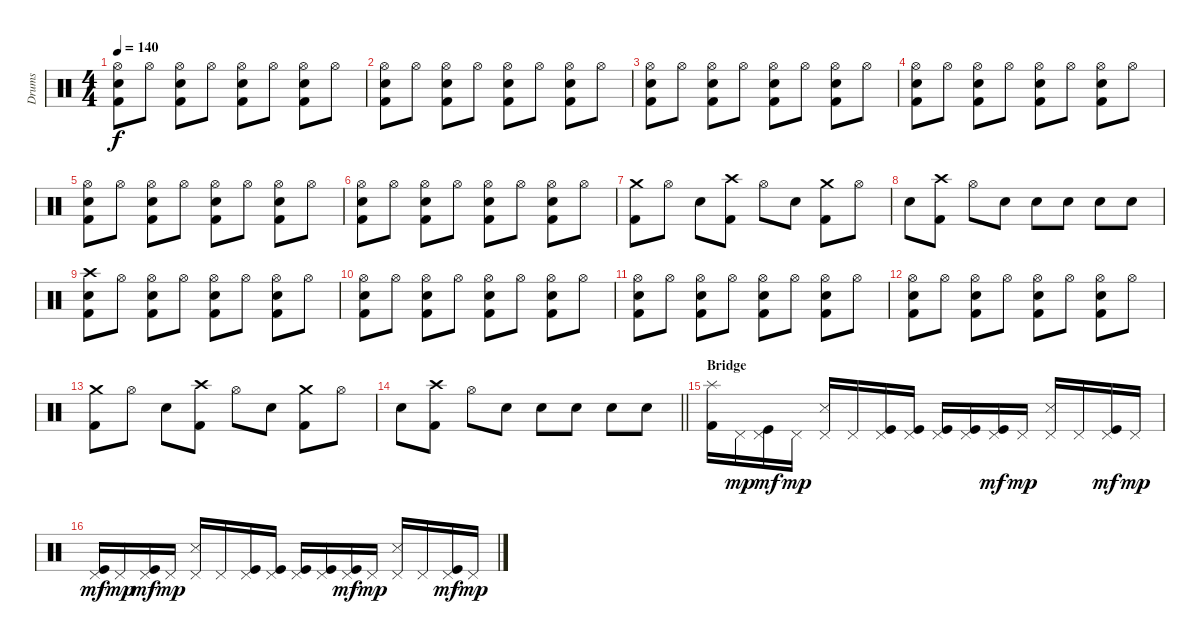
\track ("Drums" "Drums") {instrument percussion}
\staff {score}
\articulation defaults
\ts (4 4)
\tempo 140
\clef neutral
\ks c
("Hi-Hat (open)" "Snare (hit) 2" "Kick (hit) 2").8{dy f} "Hi-Hat (open)".8 ("Hi-Hat (open)" "Snare (hit) 2" "Kick (hit) 2").8 "Hi-Hat (open)".8 ("Hi-Hat (open)" "Snare (hit) 2" "Kick (hit) 2").8 "Hi-Hat (open)".8 ("Hi-Hat (open)" "Snare (hit) 2" "Kick (hit) 2").8 "Hi-Hat (open)".8 |
("Hi-Hat (open)" "Snare (hit) 2" "Kick (hit) 2").8 "Hi-Hat (open)".8 ("Hi-Hat (open)" "Snare (hit) 2" "Kick (hit) 2").8 "Hi-Hat (open)".8 ("Hi-Hat (open)" "Snare (hit) 2" "Kick (hit) 2").8 "Hi-Hat (open)".8 ("Hi-Hat (open)" "Snare (hit) 2" "Kick (hit) 2").8 "Hi-Hat (open)".8 |
("Hi-Hat (open)" "Snare (hit) 2" "Kick (hit) 2").8 "Hi-Hat (open)".8 ("Hi-Hat (open)" "Snare (hit) 2" "Kick (hit) 2").8 "Hi-Hat (open)".8 ("Hi-Hat (open)" "Snare (hit) 2" "Kick (hit) 2").8 "Hi-Hat (open)".8 ("Hi-Hat (open)" "Snare (hit) 2" "Kick (hit) 2").8 "Hi-Hat (open)".8 |
("Hi-Hat (open)" "Snare (hit) 2" "Kick (hit) 2").8 "Hi-Hat (open)".8 ("Hi-Hat (open)" "Snare (hit) 2" "Kick (hit) 2").8 "Hi-Hat (open)".8 ("Hi-Hat (open)" "Snare (hit) 2" "Kick (hit) 2").8 "Hi-Hat (open)".8 ("Hi-Hat (open)" "Snare (hit) 2" "Kick (hit) 2").8 "Hi-Hat (open)".8 |
("Hi-Hat (open)" "Snare (hit) 2" "Kick (hit) 2").8 "Hi-Hat (open)".8 ("Hi-Hat (open)" "Snare (hit) 2" "Kick (hit) 2").8 "Hi-Hat (open)".8 ("Hi-Hat (open)" "Snare (hit) 2" "Kick (hit) 2").8 "Hi-Hat (open)".8 ("Hi-Hat (open)" "Snare (hit) 2" "Kick (hit) 2").8 "Hi-Hat (open)".8 |
("Hi-Hat (open)" "Snare (hit) 2" "Kick (hit) 2").8 "Hi-Hat (open)".8 ("Hi-Hat (open)" "Snare (hit) 2" "Kick (hit) 2").8 "Hi-Hat (open)".8 ("Hi-Hat (open)" "Snare (hit) 2" "Kick (hit) 2").8 "Hi-Hat (open)".8 ("Hi-Hat (open)" "Snare (hit) 2" "Kick (hit) 2").8 "Hi-Hat (open)".8 |
("Crash medium (hit)" "Kick (hit) 2").8 "Hi-Hat (open)".8 "Snare (hit) 2".8 ("Crash high (hit)" "Kick (hit) 2").8 "Hi-Hat (open)".8 "Snare (hit) 2".8 ("Crash medium (hit)" "Kick (hit) 2").8 "Hi-Hat (open)".8 |
"Snare (hit) 2".8 ("Crash high (hit)" "Kick (hit) 2").8 "Hi-Hat (open)".8 "Snare (hit) 2".8 "Snare (hit) 2".8 "Snare (hit) 2".8 "Snare (hit) 2".8 "Snare (hit) 2".8 |
("Crash high (hit)" "Snare (hit) 2" "Kick (hit) 2").8 "Hi-Hat (open)".8 ("Hi-Hat (open)" "Snare (hit) 2" "Kick (hit) 2").8 "Hi-Hat (open)".8 ("Hi-Hat (open)" "Snare (hit) 2" "Kick (hit) 2").8 "Hi-Hat (open)".8 ("Hi-Hat (open)" "Snare (hit) 2" "Kick (hit) 2").8 "Hi-Hat (open)".8 |
("Hi-Hat (open)" "Snare (hit) 2" "Kick (hit) 2").8 "Hi-Hat (open)".8 ("Hi-Hat (open)" "Snare (hit) 2" "Kick (hit) 2").8 "Hi-Hat (open)".8 ("Hi-Hat (open)" "Snare (hit) 2" "Kick (hit) 2").8 "Hi-Hat (open)".8 ("Hi-Hat (open)" "Snare (hit) 2" "Kick (hit) 2").8 "Hi-Hat (open)".8 |
("Hi-Hat (open)" "Snare (hit) 2" "Kick (hit) 2").8 "Hi-Hat (open)".8 ("Hi-Hat (open)" "Snare (hit) 2" "Kick (hit) 2").8 "Hi-Hat (open)".8 ("Hi-Hat (open)" "Snare (hit) 2" "Kick (hit) 2").8 "Hi-Hat (open)".8 ("Hi-Hat (open)" "Snare (hit) 2" "Kick (hit) 2").8 "Hi-Hat (open)".8 |
("Hi-Hat (open)" "Snare (hit) 2" "Kick (hit) 2").8 "Hi-Hat (open)".8 ("Hi-Hat (open)" "Snare (hit) 2" "Kick (hit) 2").8 "Hi-Hat (open)".8 ("Hi-Hat (open)" "Snare (hit) 2" "Kick (hit) 2").8 "Hi-Hat (open)".8 ("Hi-Hat (open)" "Snare (hit) 2" "Kick (hit) 2").8 "Hi-Hat (open)".8 |
("Crash medium (hit)" "Kick (hit) 2").8 "Hi-Hat (open)".8 "Snare (hit) 2".8 ("Crash high (hit)" "Kick (hit) 2").8 "Hi-Hat (open)".8 "Snare (hit) 2".8 ("Crash medium (hit)" "Kick (hit) 2").8 "Hi-Hat (open)".8 |
\barLineRight lightlight "Snare (hit) 2".8
("Crash high (hit)" "Kick (hit) 2").8 "Hi-Hat (open)".8 "Snare (hit) 2".8 "Snare (hit) 2".8 "Snare (hit) 2".8 "Snare (hit) 2".8 "Snare (hit) 2".8 |
\section ("" "Bridge")
("Splash (hit)" "Kick (hit) 2").16 "Pedal Hi-Hat (hit)".16{dy mp} ("Pedal Hi-Hat (hit)" "Kick (hit)").16{dy mf} "Pedal Hi-Hat (hit)".16{dy mp} ("Pedal Hi-Hat (hit)" "Snare (side stick) 3").16 "Pedal Hi-Hat (hit)".16 ("Pedal Hi-Hat (hit)" "Kick (hit)").16 ("Pedal Hi-Hat (hit)" "Kick (hit)").16 ("Pedal Hi-Hat (hit)" "Kick (hit)").16 ("Pedal Hi-Hat (hit)" "Kick (hit)").16 ("Pedal Hi-Hat (hit)" "Kick (hit)").16{dy mf} "Pedal Hi-Hat (hit)".16{dy mp} ("Pedal Hi-Hat (hit)" "Snare (side stick) 3").16 "Pedal Hi-Hat (hit)".16 ("Pedal Hi-Hat (hit)" "Kick (hit)").16{dy mf} "Pedal Hi-Hat (hit)".16{dy mp} |
("Pedal Hi-Hat (hit)" "Kick (hit)").16{dy mf} "Pedal Hi-Hat (hit)".16{dy mp} ("Pedal Hi-Hat (hit)" "Kick (hit)").16{dy mf} "Pedal Hi-Hat (hit)".16{dy mp} ("Pedal Hi-Hat (hit)" "Snare (side stick) 3").16 "Pedal Hi-Hat (hit)".16 ("Pedal Hi-Hat (hit)" "Kick (hit)").16 ("Pedal Hi-Hat (hit)" "Kick (hit)").16 ("Pedal Hi-Hat (hit)" "Kick (hit)").16 ("Pedal Hi-Hat (hit)" "Kick (hit)").16 ("Pedal Hi-Hat (hit)" "Kick (hit)").16{dy mf} "Pedal Hi-Hat (hit)".16{dy mp} ("Pedal Hi-Hat (hit)" "Snare (side stick) 3").16 "Pedal Hi-Hat (hit)".16 ("Pedal Hi-Hat (hit)" "Kick (hit)").16{dy mf} "Pedal Hi-Hat (hit)".16{dy mp}
